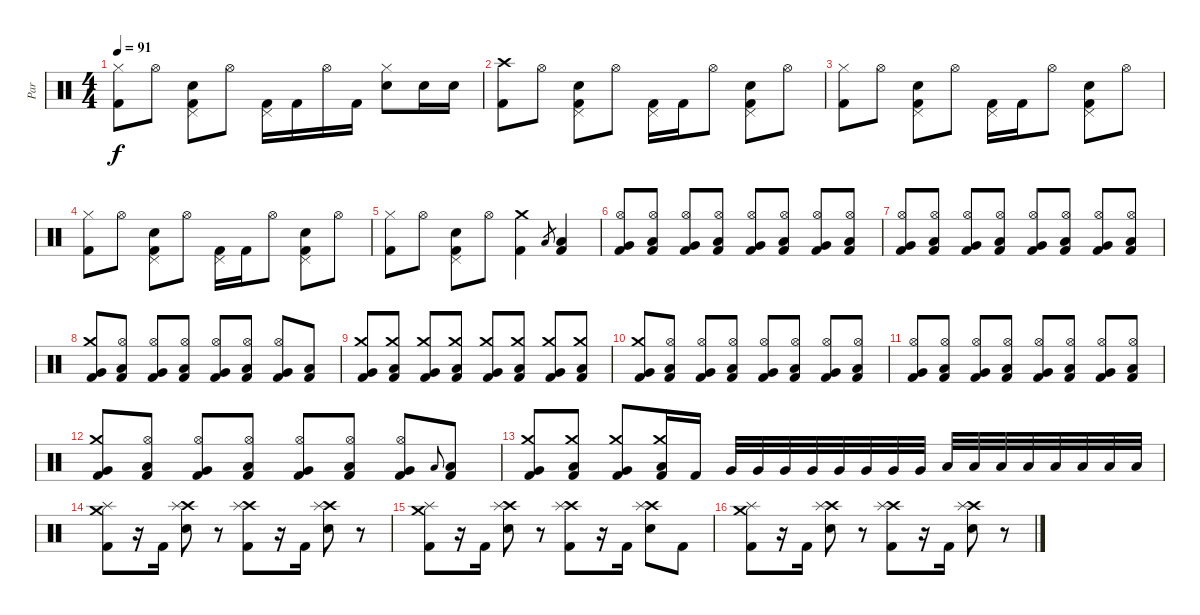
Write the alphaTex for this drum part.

\track ("Par" "Par") {instrument percussion}
\staff {score}
\articulation defaults
\ts (4 4)
\tempo 91
\clef neutral
\ks c
("Hi-Hat (closed)" "Kick (hit) 2").8{dy f} "Hi-Hat (open)".8 ("Pedal Hi-Hat (hit)" "Snare (hit) 2" "Kick (hit) 2").8 "Hi-Hat (open)".8 ("Pedal Hi-Hat (hit)" "Kick (hit) 2").16 "Kick (hit) 2".16 "Hi-Hat (open)".16 "Kick (hit) 2".16 ("Hi-Hat (closed)" "Snare (hit) 2").8 "Snare (hit) 2".16 "Snare (hit) 2".16 |
("Crash high (hit)" "Kick (hit) 2").8 "Hi-Hat (open)".8 ("Pedal Hi-Hat (hit)" "Snare (hit) 2" "Kick (hit) 2").8 "Hi-Hat (open)".8 ("Pedal Hi-Hat (hit)" "Kick (hit) 2").16 "Kick (hit) 2".16 "Hi-Hat (open)".8 ("Pedal Hi-Hat (hit)" "Snare (hit) 2" "Kick (hit) 2").8 "Hi-Hat (open)".8 |
("Hi-Hat (closed)" "Kick (hit) 2").8 "Hi-Hat (open)".8 ("Pedal Hi-Hat (hit)" "Snare (hit) 2" "Kick (hit) 2").8 "Hi-Hat (open)".8 ("Pedal Hi-Hat (hit)" "Kick (hit) 2").16 "Kick (hit) 2".16 "Hi-Hat (open)".8 ("Pedal Hi-Hat (hit)" "Snare (hit) 2" "Kick (hit) 2").8 "Hi-Hat (open)".8 |
("Hi-Hat (closed)" "Kick (hit) 2").8 "Hi-Hat (open)".8 ("Pedal Hi-Hat (hit)" "Snare (hit) 2" "Kick (hit) 2").8 "Hi-Hat (open)".8 ("Pedal Hi-Hat (hit)" "Kick (hit) 2").16 "Kick (hit) 2".16 "Hi-Hat (open)".8 ("Pedal Hi-Hat (hit)" "Snare (hit) 2" "Kick (hit) 2").8 "Hi-Hat (open)".8 |
("Hi-Hat (closed)" "Kick (hit) 2").8 "Hi-Hat (open)".8 ("Pedal Hi-Hat (hit)" "Snare (hit) 2" "Kick (hit) 2").8 "Hi-Hat (open)".8 ("Crash medium (hit)" "Kick (hit) 2").4 "Low Floor Tom (hit)".8{gr} ("Low Floor Tom (hit)" "Kick (hit) 2").4 |
("Hi-Hat (open)" "Very Low Tom (hit)" "Kick (hit) 2").8 ("Hi-Hat (open)" "Low Floor Tom (hit)" "Kick (hit) 2").8 ("Hi-Hat (open)" "Very Low Tom (hit)" "Kick (hit) 2").8 ("Hi-Hat (open)" "Low Floor Tom (hit)" "Kick (hit) 2").8 ("Hi-Hat (open)" "Very Low Tom (hit)" "Kick (hit) 2").8 ("Hi-Hat (open)" "Low Floor Tom (hit)" "Kick (hit) 2").8 ("Hi-Hat (open)" "Very Low Tom (hit)" "Kick (hit) 2").8 ("Hi-Hat (open)" "Low Floor Tom (hit)" "Kick (hit) 2").8 |
("Hi-Hat (open)" "Very Low Tom (hit)" "Kick (hit) 2").8 ("Hi-Hat (open)" "Low Floor Tom (hit)" "Kick (hit) 2").8 ("Hi-Hat (open)" "Very Low Tom (hit)" "Kick (hit) 2").8 ("Hi-Hat (open)" "Low Floor Tom (hit)" "Kick (hit) 2").8 ("Hi-Hat (open)" "Very Low Tom (hit)" "Kick (hit) 2").8 ("Hi-Hat (open)" "Low Floor Tom (hit)" "Kick (hit) 2").8 ("Hi-Hat (open)" "Very Low Tom (hit)" "Kick (hit) 2").8 ("Hi-Hat (open)" "Low Floor Tom (hit)" "Kick (hit) 2").8 |
("Crash medium (hit)" "Very Low Tom (hit)" "Kick (hit) 2").8 ("Hi-Hat (open)" "Low Floor Tom (hit)" "Kick (hit) 2").8 ("Hi-Hat (open)" "Very Low Tom (hit)" "Kick (hit) 2").8 ("Hi-Hat (open)" "Low Floor Tom (hit)" "Kick (hit) 2").8 ("Hi-Hat (open)" "Very Low Tom (hit)" "Kick (hit) 2").8 ("Hi-Hat (open)" "Low Floor Tom (hit)" "Kick (hit) 2").8 ("Hi-Hat (open)" "Very Low Tom (hit)" "Kick (hit) 2").8 ("Low Floor Tom (hit)" "Kick (hit) 2").8 |
("Crash medium (hit)" "Very Low Tom (hit)" "Kick (hit) 2").8 ("Crash medium (hit)" "Low Floor Tom (hit)" "Kick (hit) 2").8 ("Crash medium (hit)" "Very Low Tom (hit)" "Kick (hit) 2").8 ("Crash medium (hit)" "Low Floor Tom (hit)" "Kick (hit) 2").8 ("Crash medium (hit)" "Very Low Tom (hit)" "Kick (hit) 2").8 ("Crash medium (hit)" "Low Floor Tom (hit)" "Kick (hit) 2").8 ("Crash medium (hit)" "Very Low Tom (hit)" "Kick (hit) 2").8 ("Crash medium (hit)" "Low Floor Tom (hit)" "Kick (hit) 2").8 |
("Crash medium (hit)" "Very Low Tom (hit)" "Kick (hit) 2").8 ("Hi-Hat (open)" "Low Floor Tom (hit)" "Kick (hit) 2").8 ("Hi-Hat (open)" "Very Low Tom (hit)" "Kick (hit) 2").8 ("Hi-Hat (open)" "Low Floor Tom (hit)" "Kick (hit) 2").8 ("Hi-Hat (open)" "Very Low Tom (hit)" "Kick (hit) 2").8 ("Hi-Hat (open)" "Low Floor Tom (hit)" "Kick (hit) 2").8 ("Hi-Hat (open)" "Very Low Tom (hit)" "Kick (hit) 2").8 ("Hi-Hat (open)" "Low Floor Tom (hit)" "Kick (hit) 2").8 |
("Hi-Hat (open)" "Very Low Tom (hit)" "Kick (hit) 2").8 ("Hi-Hat (open)" "Low Floor Tom (hit)" "Kick (hit) 2").8 ("Hi-Hat (open)" "Very Low Tom (hit)" "Kick (hit) 2").8 ("Hi-Hat (open)" "Low Floor Tom (hit)" "Kick (hit) 2").8 ("Hi-Hat (open)" "Very Low Tom (hit)" "Kick (hit) 2").8 ("Hi-Hat (open)" "Low Floor Tom (hit)" "Kick (hit) 2").8 ("Hi-Hat (open)" "Very Low Tom (hit)" "Kick (hit) 2").8 ("Hi-Hat (open)" "Low Floor Tom (hit)" "Kick (hit) 2").8 |
("Crash medium (hit)" "Very Low Tom (hit)" "Kick (hit) 2").8 ("Hi-Hat (open)" "Low Floor Tom (hit)" "Kick (hit) 2").8 ("Hi-Hat (open)" "Very Low Tom (hit)" "Kick (hit) 2").8 ("Hi-Hat (open)" "Low Floor Tom (hit)" "Kick (hit) 2").8 ("Hi-Hat (open)" "Very Low Tom (hit)" "Kick (hit) 2").8 ("Hi-Hat (open)" "Low Floor Tom (hit)" "Kick (hit) 2").8 ("Hi-Hat (open)" "Very Low Tom (hit)" "Kick (hit) 2").8 "Low Floor Tom (hit)".8{gr onbeat} ("Low Floor Tom (hit)" "Kick (hit) 2").8 |
("Crash medium (hit)" "Very Low Tom (hit)" "Kick (hit) 2").8 ("Crash medium (hit)" "Low Floor Tom (hit)" "Kick (hit) 2").8 ("Crash medium (hit)" "Very Low Tom (hit)" "Kick (hit) 2").8 ("Crash medium (hit)" "Low Floor Tom (hit)" "Kick (hit) 2").16 "Kick (hit) 2".16 "Very Low Tom (hit)".32 "Very Low Tom (hit)".32 "Very Low Tom (hit)".32 "Very Low Tom (hit)".32 "Very Low Tom (hit)".32 "Very Low Tom (hit)".32 "Very Low Tom (hit)".32 "Very Low Tom (hit)".32 "Low Floor Tom (hit)".32 "Low Floor Tom (hit)".32 "Low Floor Tom (hit)".32 "Low Floor Tom (hit)".32 "Low Floor Tom (hit)".32 "Low Floor Tom (hit)".32 "Low Floor Tom (hit)".32 "Low Floor Tom (hit)".32 |
("Crash medium (hit)" "Splash (hit)" "Kick (hit) 2").8 r.16 "Kick (hit) 2".16 ("Crash high (hit)" "Splash (hit)" "Snare (hit) 2").8 r.8 ("Crash high (hit)" "Splash (hit)" "Kick (hit) 2").8 r.16 "Kick (hit) 2".16 ("Crash high (hit)" "Splash (hit)" "Snare (hit) 2").8 r.8 |
("Crash medium (hit)" "Splash (hit)" "Kick (hit) 2").8 r.16 "Kick (hit) 2".16 ("Crash high (hit)" "Splash (hit)" "Snare (hit) 2").8 r.8 ("Crash high (hit)" "Splash (hit)" "Kick (hit) 2").8 r.16 "Kick (hit) 2".16 ("Crash high (hit)" "Splash (hit)" "Snare (hit) 2").8 "Kick (hit) 2".8 |
("Crash medium (hit)" "Splash (hit)" "Kick (hit) 2").8 r.16 "Kick (hit) 2".16 ("Crash high (hit)" "Splash (hit)" "Snare (hit) 2").8 r.8 ("Crash high (hit)" "Splash (hit)" "Kick (hit) 2").8 r.16 "Kick (hit) 2".16 ("Crash high (hit)" "Splash (hit)" "Snare (hit) 2").8 r.8
